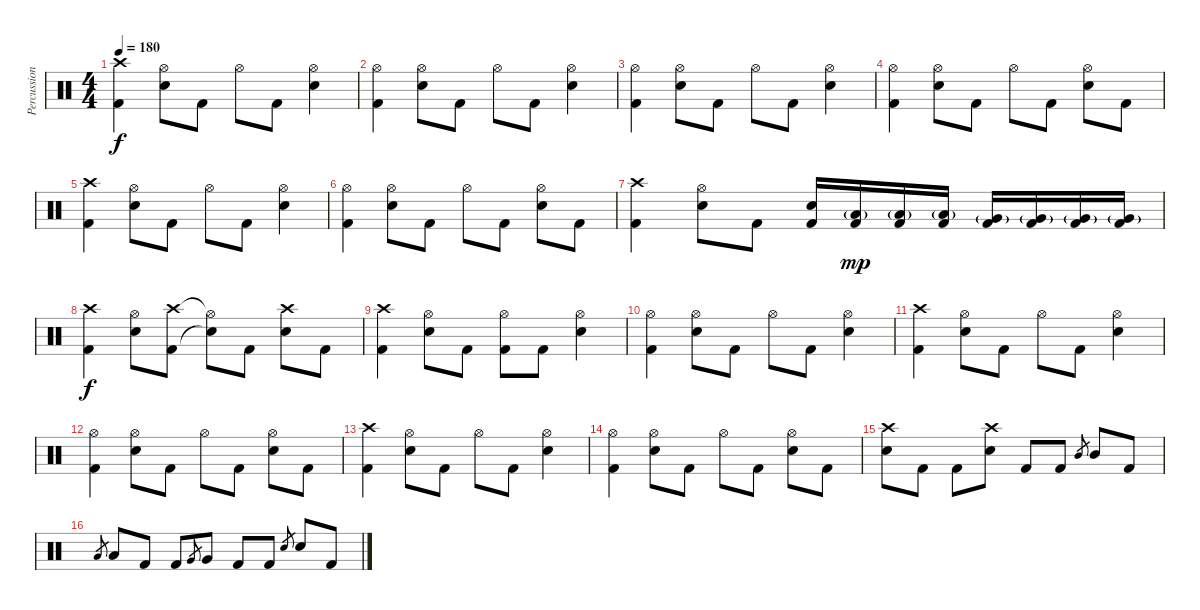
\track ("Percussion" "Percussion") {instrument percussion}
\staff {score}
\articulation defaults
\ts (4 4)
\tempo 180
\clef neutral
\ks c
("Crash high (hit)" "Kick (hit) 2").4{dy f} ("Hi-Hat (open)" "Snare (hit) 2").8 "Kick (hit) 2".8 "Hi-Hat (open)".8 "Kick (hit) 2".8 ("Hi-Hat (open)" "Snare (hit) 2").4 |
("Hi-Hat (open)" "Kick (hit) 2").4 ("Hi-Hat (open)" "Snare (hit) 2").8 "Kick (hit) 2".8 "Hi-Hat (open)".8 "Kick (hit) 2".8 ("Hi-Hat (open)" "Snare (hit) 2").4 |
("Hi-Hat (open)" "Kick (hit) 2").4 ("Hi-Hat (open)" "Snare (hit) 2").8 "Kick (hit) 2".8 "Hi-Hat (open)".8 "Kick (hit) 2".8 ("Hi-Hat (open)" "Snare (hit) 2").4 |
("Hi-Hat (open)" "Kick (hit) 2").4 ("Hi-Hat (open)" "Snare (hit) 2").8 "Kick (hit) 2".8 "Hi-Hat (open)".8 "Kick (hit) 2".8 ("Hi-Hat (open)" "Snare (hit) 2").8 "Kick (hit) 2".8 |
("Crash high (hit)" "Kick (hit) 2").4 ("Hi-Hat (open)" "Snare (hit) 2").8 "Kick (hit) 2".8 "Hi-Hat (open)".8 "Kick (hit) 2".8 ("Hi-Hat (open)" "Snare (hit) 2").4 |
("Hi-Hat (open)" "Kick (hit) 2").4 ("Hi-Hat (open)" "Snare (hit) 2").8 "Kick (hit) 2".8 "Hi-Hat (open)".8 "Kick (hit) 2".8 ("Hi-Hat (open)" "Snare (hit) 2").8 "Kick (hit) 2".8 |
("Crash high (hit)" "Kick (hit) 2").4 ("Hi-Hat (open)" "Snare (hit) 2").8 "Kick (hit) 2".8 ("Snare (hit) 2" "Kick (hit) 2").16 ("Low Tom (hit)"{g} "Kick (hit) 2").16{dy mp} ("Low Tom (hit)"{g} "Kick (hit) 2").16 ("Low Tom (hit)"{g} "Kick (hit) 2").16 ("Very Low Tom (hit)"{g} "Kick (hit) 2").16 ("Very Low Tom (hit)"{g} "Kick (hit) 2").16 ("Very Low Tom (hit)"{g} "Kick (hit) 2").16 ("Very Low Tom (hit)"{g} "Kick (hit) 2").16 |
("Crash high (hit)" "Kick (hit) 2").4{dy f} ("Hi-Hat (open)" "Snare (hit) 2").8 ("Crash high (hit)" "Kick (hit) 2").8 ("Hi-Hat (open)"{t} "Snare (hit)"{t}).8 "Kick (hit) 2".8 ("Crash high (hit)" "Snare (hit) 2").8 "Kick (hit) 2".8 |
("Crash high (hit)" "Kick (hit) 2").4 ("Hi-Hat (open)" "Snare (hit) 2").8 "Kick (hit) 2".8 ("Hi-Hat (open)" "Kick (hit) 2").8 "Kick (hit) 2".8 ("Hi-Hat (open)" "Snare (hit) 2").4 |
("Hi-Hat (open)" "Kick (hit) 2").4 ("Hi-Hat (open)" "Snare (hit) 2").8 "Kick (hit) 2".8 "Hi-Hat (open)".8 "Kick (hit) 2".8 ("Hi-Hat (open)" "Snare (hit) 2").4 |
("Crash high (hit)" "Kick (hit) 2").4 ("Hi-Hat (open)" "Snare (hit) 2").8 "Kick (hit) 2".8 "Hi-Hat (open)".8 "Kick (hit) 2".8 ("Hi-Hat (open)" "Snare (hit) 2").4 |
("Hi-Hat (open)" "Kick (hit) 2").4 ("Hi-Hat (open)" "Snare (hit) 2").8 "Kick (hit) 2".8 "Hi-Hat (open)".8 "Kick (hit) 2".8 ("Hi-Hat (open)" "Snare (hit) 2").8 "Kick (hit) 2".8 |
("Crash high (hit)" "Kick (hit) 2").4 ("Hi-Hat (open)" "Snare (hit) 2").8 "Kick (hit) 2".8 "Hi-Hat (open)".8 "Kick (hit) 2".8 ("Hi-Hat (open)" "Snare (hit) 2").4 |
("Hi-Hat (open)" "Kick (hit) 2").4 ("Hi-Hat (open)" "Snare (hit) 2").8 "Kick (hit) 2".8 "Hi-Hat (open)".8 "Kick (hit) 2".8 ("Hi-Hat (open)" "Snare (hit) 2").8 "Kick (hit) 2".8 |
("Crash high (hit)" "Snare (hit) 2").8 "Kick (hit) 2".8 "Kick (hit) 2".8 ("Crash high (hit)" "Snare (hit) 2").8 "Kick (hit) 2".8 "Kick (hit) 2".8 "Mid Tom (hit)".8{gr} "Mid Tom (hit)".8 "Kick (hit) 2".8 |
"Low Tom (hit)".8{gr} "Low Tom (hit)".8 "Kick (hit) 2".8 "Kick (hit) 2".8 "Very Low Tom (hit)".8{gr} "Very Low Tom (hit)".8 "Kick (hit) 2".8 "Kick (hit) 2".8 "Snare (hit) 2".8{gr} "Snare (hit) 2".8 "Kick (hit) 2".8
